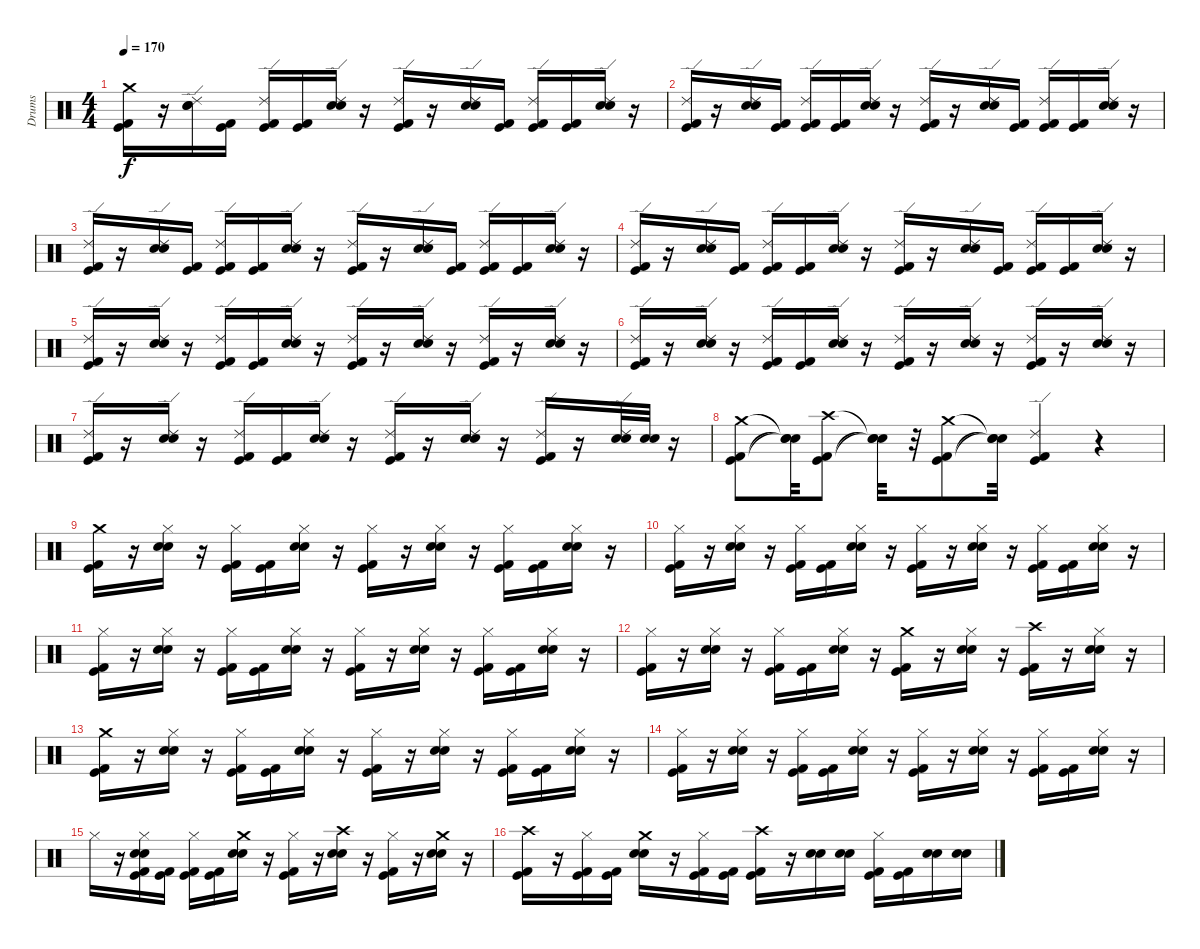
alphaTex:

\track ("Drums" "Drums") {instrument percussion}
\staff {score}
\articulation defaults
\ts (4 4)
\tempo 170
\clef neutral
\ks c
("Crash medium (hit)" "Kick (hit) 2" "Kick (hit)").16{dy f} r.16 ("Ride (edge) 2" "Electric Snare (hit)" "Snare (hit) 2").16 ("Kick (hit) 2" "Kick (hit)").16 ("Ride (edge) 2" "Kick (hit) 2" "Kick (hit)").16 ("Kick (hit) 2" "Kick (hit)").16 ("Ride (edge) 2" "Electric Snare (hit)" "Snare (hit) 2").16 r.16 ("Ride (edge) 2" "Kick (hit) 2" "Kick (hit)").16 r.16 ("Ride (edge) 2" "Electric Snare (hit)" "Snare (hit) 2").16 ("Kick (hit) 2" "Kick (hit)").16 ("Ride (edge) 2" "Kick (hit) 2" "Kick (hit)").16 ("Kick (hit) 2" "Kick (hit)").16 ("Ride (edge) 2" "Electric Snare (hit)" "Snare (hit) 2").16 r.16 |
("Ride (edge) 2" "Kick (hit) 2" "Kick (hit)").16 r.16 ("Ride (edge) 2" "Electric Snare (hit)" "Snare (hit) 2").16 ("Kick (hit) 2" "Kick (hit)").16 ("Ride (edge) 2" "Kick (hit) 2" "Kick (hit)").16 ("Kick (hit) 2" "Kick (hit)").16 ("Ride (edge) 2" "Electric Snare (hit)" "Snare (hit) 2").16 r.16 ("Ride (edge) 2" "Kick (hit) 2" "Kick (hit)").16 r.16 ("Ride (edge) 2" "Electric Snare (hit)" "Snare (hit) 2").16 ("Kick (hit) 2" "Kick (hit)").16 ("Ride (edge) 2" "Kick (hit) 2" "Kick (hit)").16 ("Kick (hit) 2" "Kick (hit)").16 ("Ride (edge) 2" "Electric Snare (hit)" "Snare (hit) 2").16 r.16 |
("Ride (edge) 2" "Kick (hit) 2" "Kick (hit)").16 r.16 ("Ride (edge) 2" "Electric Snare (hit)" "Snare (hit) 2").16 ("Kick (hit) 2" "Kick (hit)").16 ("Ride (edge) 2" "Kick (hit) 2" "Kick (hit)").16 ("Kick (hit) 2" "Kick (hit)").16 ("Ride (edge) 2" "Electric Snare (hit)" "Snare (hit) 2").16 r.16 ("Ride (edge) 2" "Kick (hit) 2" "Kick (hit)").16 r.16 ("Ride (edge) 2" "Electric Snare (hit)" "Snare (hit) 2").16 ("Kick (hit) 2" "Kick (hit)").16 ("Ride (edge) 2" "Kick (hit) 2" "Kick (hit)").16 ("Kick (hit) 2" "Kick (hit)").16 ("Ride (edge) 2" "Electric Snare (hit)" "Snare (hit) 2").16 r.16 |
("Ride (edge) 2" "Kick (hit) 2" "Kick (hit)").16 r.16 ("Ride (edge) 2" "Electric Snare (hit)" "Snare (hit) 2").16 ("Kick (hit) 2" "Kick (hit)").16 ("Ride (edge) 2" "Kick (hit) 2" "Kick (hit)").16 ("Kick (hit) 2" "Kick (hit)").16 ("Ride (edge) 2" "Electric Snare (hit)" "Snare (hit) 2").16 r.16 ("Ride (edge) 2" "Kick (hit) 2" "Kick (hit)").16 r.16 ("Ride (edge) 2" "Electric Snare (hit)" "Snare (hit) 2").16 ("Kick (hit) 2" "Kick (hit)").16 ("Ride (edge) 2" "Kick (hit) 2" "Kick (hit)").16 ("Kick (hit) 2" "Kick (hit)").16 ("Ride (edge) 2" "Electric Snare (hit)" "Snare (hit) 2").16 r.16 |
("Kick (hit) 2" "Ride (edge) 2" "Kick (hit)").16 r.16 ("Electric Snare (hit)" "Snare (hit) 2" "Ride (edge) 2").16 r.16 ("Kick (hit) 2" "Kick (hit)" "Ride (edge) 2").16 ("Kick (hit) 2" "Kick (hit)").16 ("Electric Snare (hit)" "Snare (hit) 2" "Ride (edge) 2").16 r.16 ("Kick (hit) 2" "Kick (hit)" "Ride (edge) 2").16 r.16 ("Electric Snare (hit)" "Snare (hit) 2" "Ride (edge) 2").16 r.16 ("Kick (hit) 2" "Kick (hit)" "Ride (edge) 2").16 r.16 ("Electric Snare (hit)" "Snare (hit) 2" "Ride (edge) 2").16 r.16 |
("Kick (hit) 2" "Ride (edge) 2" "Kick (hit)").16 r.16 ("Electric Snare (hit)" "Snare (hit) 2" "Ride (edge) 2").16 r.16 ("Kick (hit) 2" "Kick (hit)" "Ride (edge) 2").16 ("Kick (hit) 2" "Kick (hit)").16 ("Electric Snare (hit)" "Snare (hit) 2" "Ride (edge) 2").16 r.16 ("Kick (hit) 2" "Kick (hit)" "Ride (edge) 2").16 r.16 ("Electric Snare (hit)" "Snare (hit) 2" "Ride (edge) 2").16 r.16 ("Kick (hit) 2" "Kick (hit)" "Ride (edge) 2").16 r.16 ("Electric Snare (hit)" "Snare (hit) 2" "Ride (edge) 2").16 r.16 |
("Kick (hit) 2" "Ride (edge) 2" "Kick (hit)").16 r.16 ("Electric Snare (hit)" "Snare (hit) 2" "Ride (edge) 2").16 r.16 ("Kick (hit) 2" "Kick (hit)" "Ride (edge) 2").16 ("Kick (hit) 2" "Kick (hit)").16 ("Electric Snare (hit)" "Snare (hit) 2" "Ride (edge) 2").16 r.16 ("Kick (hit) 2" "Kick (hit)" "Ride (edge) 2").16 r.16 ("Electric Snare (hit)" "Snare (hit) 2" "Ride (edge) 2").16 r.16 ("Kick (hit) 2" "Kick (hit)" "Ride (edge) 2").16 r.16 ("Electric Snare (hit)" "Snare (hit) 2" "Ride (edge) 2").32 ("Electric Snare (hit)" "Snare (hit) 2").32 r.16 |
("Crash medium (hit)" "Kick (hit) 2" "Kick (hit)").8 ("Snare (hit)"{t} "Snare (hit)"{t} "Snare (hit)"{t}).32 ("Crash high (hit)" "Kick (hit) 2" "Kick (hit)").8 ("Snare (hit)"{t} "Snare (hit)"{t} "Snare (hit)"{t}).32 r.32 ("Crash medium (hit)" "Kick (hit) 2" "Kick (hit)").8 ("Snare (hit)"{t} "Snare (hit)"{t} "Snare (hit)"{t}).32 ("Ride (edge) 2" "Kick (hit) 2" "Kick (hit)").4 r.4 |
("Crash medium (hit)" "Kick (hit) 2" "Kick (hit)").16 r.16 ("Hi-Hat (closed)" "Electric Snare (hit)" "Snare (hit) 2").16 r.16 ("Kick (hit) 2" "Kick (hit)" "Hi-Hat (closed)").16 ("Kick (hit) 2" "Kick (hit)").16 ("Electric Snare (hit)" "Snare (hit) 2" "Hi-Hat (closed)").16 r.16 ("Kick (hit) 2" "Kick (hit)" "Hi-Hat (closed)").16 r.16 ("Electric Snare (hit)" "Snare (hit) 2" "Hi-Hat (closed)").16 r.16 ("Kick (hit) 2" "Kick (hit)" "Hi-Hat (closed)").16 ("Kick (hit) 2" "Kick (hit)").16 ("Electric Snare (hit)" "Snare (hit) 2" "Hi-Hat (closed)").16 r.16 |
("Hi-Hat (closed)" "Kick (hit) 2" "Kick (hit)").16 r.16 ("Hi-Hat (closed)" "Electric Snare (hit)" "Snare (hit) 2").16 r.16 ("Kick (hit) 2" "Kick (hit)" "Hi-Hat (closed)").16 ("Kick (hit) 2" "Kick (hit)").16 ("Electric Snare (hit)" "Snare (hit) 2" "Hi-Hat (closed)").16 r.16 ("Kick (hit) 2" "Kick (hit)" "Hi-Hat (closed)").16 r.16 ("Electric Snare (hit)" "Snare (hit) 2" "Hi-Hat (closed)").16 r.16 ("Kick (hit) 2" "Kick (hit)" "Hi-Hat (closed)").16 ("Kick (hit) 2" "Kick (hit)").16 ("Electric Snare (hit)" "Snare (hit) 2" "Hi-Hat (closed)").16 r.16 |
("Hi-Hat (closed)" "Kick (hit) 2" "Kick (hit)").16 r.16 ("Hi-Hat (closed)" "Electric Snare (hit)" "Snare (hit) 2").16 r.16 ("Kick (hit) 2" "Kick (hit)" "Hi-Hat (closed)").16 ("Kick (hit) 2" "Kick (hit)").16 ("Electric Snare (hit)" "Snare (hit) 2" "Hi-Hat (closed)").16 r.16 ("Kick (hit) 2" "Kick (hit)" "Hi-Hat (closed)").16 r.16 ("Electric Snare (hit)" "Snare (hit) 2" "Hi-Hat (closed)").16 r.16 ("Kick (hit) 2" "Kick (hit)" "Hi-Hat (closed)").16 ("Kick (hit) 2" "Kick (hit)").16 ("Electric Snare (hit)" "Snare (hit) 2" "Hi-Hat (closed)").16 r.16 |
("Hi-Hat (closed)" "Kick (hit) 2" "Kick (hit)").16 r.16 ("Hi-Hat (closed)" "Electric Snare (hit)" "Snare (hit) 2").16 r.16 ("Kick (hit) 2" "Kick (hit)" "Hi-Hat (closed)").16 ("Kick (hit) 2" "Kick (hit)").16 ("Electric Snare (hit)" "Snare (hit) 2" "Hi-Hat (closed)").16 r.16 ("Crash medium (hit)" "Kick (hit) 2" "Kick (hit)").16 r.16 ("Electric Snare (hit)" "Snare (hit) 2" "Hi-Hat (closed)").16 r.16 ("Crash high (hit)" "Kick (hit) 2" "Kick (hit)").16 r.16 ("Electric Snare (hit)" "Snare (hit) 2" "Hi-Hat (closed)").16 r.16 |
("Crash medium (hit)" "Kick (hit) 2" "Kick (hit)").16 r.16 ("Hi-Hat (closed)" "Electric Snare (hit)" "Snare (hit) 2").16 r.16 ("Kick (hit) 2" "Kick (hit)" "Hi-Hat (closed)").16 ("Kick (hit) 2" "Kick (hit)").16 ("Electric Snare (hit)" "Snare (hit) 2" "Hi-Hat (closed)").16 r.16 ("Kick (hit) 2" "Kick (hit)" "Hi-Hat (closed)").16 r.16 ("Electric Snare (hit)" "Snare (hit) 2" "Hi-Hat (closed)").16 r.16 ("Kick (hit) 2" "Kick (hit)" "Hi-Hat (closed)").16 ("Kick (hit) 2" "Kick (hit)").16 ("Electric Snare (hit)" "Snare (hit) 2" "Hi-Hat (closed)").16 r.16 |
("Hi-Hat (closed)" "Kick (hit) 2" "Kick (hit)").16 r.16 ("Hi-Hat (closed)" "Electric Snare (hit)" "Snare (hit) 2").16 r.16 ("Kick (hit) 2" "Kick (hit)" "Hi-Hat (closed)").16 ("Kick (hit) 2" "Kick (hit)").16 ("Electric Snare (hit)" "Snare (hit) 2" "Hi-Hat (closed)").16 r.16 ("Kick (hit) 2" "Kick (hit)" "Hi-Hat (closed)").16 r.16 ("Electric Snare (hit)" "Snare (hit) 2" "Hi-Hat (closed)").16 r.16 ("Kick (hit) 2" "Kick (hit)" "Hi-Hat (closed)").16 ("Kick (hit) 2" "Kick (hit)").16 ("Electric Snare (hit)" "Snare (hit) 2" "Hi-Hat (closed)").16 r.16 |
"Hi-Hat (closed)".16 r.16 ("Kick (hit) 2" "Kick (hit)" "Hi-Hat (closed)" "Electric Snare (hit)" "Snare (hit) 2").16 ("Kick (hit) 2" "Kick (hit)").16 ("Kick (hit) 2" "Kick (hit)" "Hi-Hat (closed)").16 ("Kick (hit) 2" "Kick (hit)").16 ("Crash medium (hit)" "Electric Snare (hit)" "Snare (hit) 2").16 r.16 ("Kick (hit) 2" "Kick (hit)" "Hi-Hat (closed)").16 r.16 ("Crash high (hit)" "Electric Snare (hit)" "Snare (hit) 2").16 r.16 ("Kick (hit) 2" "Kick (hit)" "Hi-Hat (closed)").16 r.16 ("Crash medium (hit)" "Electric Snare (hit)" "Snare (hit) 2").16 r.16 |
("Crash high (hit)" "Kick (hit) 2" "Kick (hit)").16 r.16 ("Kick (hit) 2" "Kick (hit)" "Hi-Hat (closed)").16 ("Kick (hit) 2" "Kick (hit)").16 ("Crash medium (hit)" "Electric Snare (hit)" "Snare (hit) 2").16 r.16 ("Kick (hit) 2" "Kick (hit)" "Hi-Hat (closed)").16 ("Kick (hit) 2" "Kick (hit)").16 ("Crash high (hit)" "Kick (hit) 2" "Kick (hit)").16 r.16 ("Electric Snare (hit)" "Snare (hit) 2").16 ("Electric Snare (hit)" "Snare (hit) 2").16 ("Hi-Hat (closed)" "Kick (hit) 2" "Kick (hit)").16 ("Kick (hit) 2" "Kick (hit)").16 ("Electric Snare (hit)" "Snare (hit) 2").16 ("Electric Snare (hit)" "Snare (hit) 2").16
